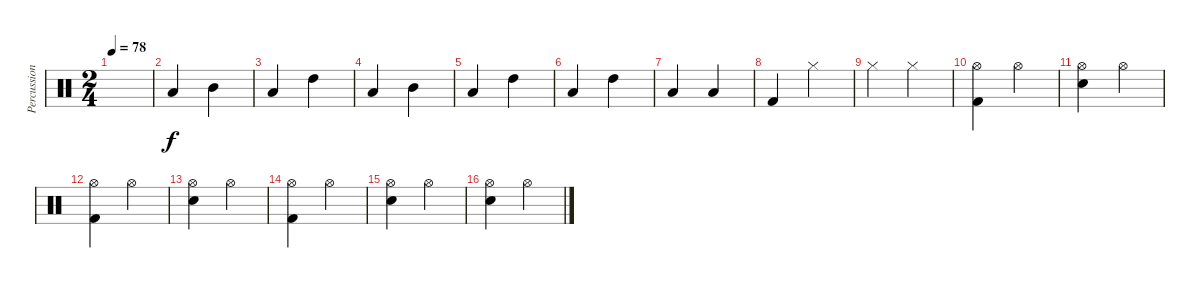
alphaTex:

\track ("Percussion" "Percussion") {instrument percussion}
\staff {score}
\articulation defaults
\ts (2 4)
\tempo 78
\clef neutral
\ks c
|
"Low Tom (hit)".4 "Mid Tom (hit)".4 |
"Low Tom (hit)".4 "High Tom (hit)".4 |
"Low Tom (hit)".4 "Mid Tom (hit)".4 |
"Low Tom (hit)".4 "High Tom (hit)".4 |
"Low Tom (hit)".4 "High Tom (hit)".4 |
"Low Tom (hit)".4 "Low Tom (hit)".4 |
"Kick (hit) 2".4 "Hi-Hat (closed)".4 |
"Hi-Hat (closed)".4 "Hi-Hat (closed)".4 |
("Kick (hit) 2" "Hi-Hat (open)").4{dy f} "Hi-Hat (open)".4 |
("Snare (hit) 2" "Hi-Hat (open)").4 "Hi-Hat (open)".4 |
("Kick (hit) 2" "Hi-Hat (open)").4 "Hi-Hat (open)".4 |
("Snare (hit) 2" "Hi-Hat (open)").4 "Hi-Hat (open)".4 |
("Kick (hit) 2" "Hi-Hat (open)").4 "Hi-Hat (open)".4 |
("Snare (hit) 2" "Hi-Hat (open)").4 "Hi-Hat (open)".4 |
("Snare (hit) 2" "Hi-Hat (open)").4 "Hi-Hat (open)".4
